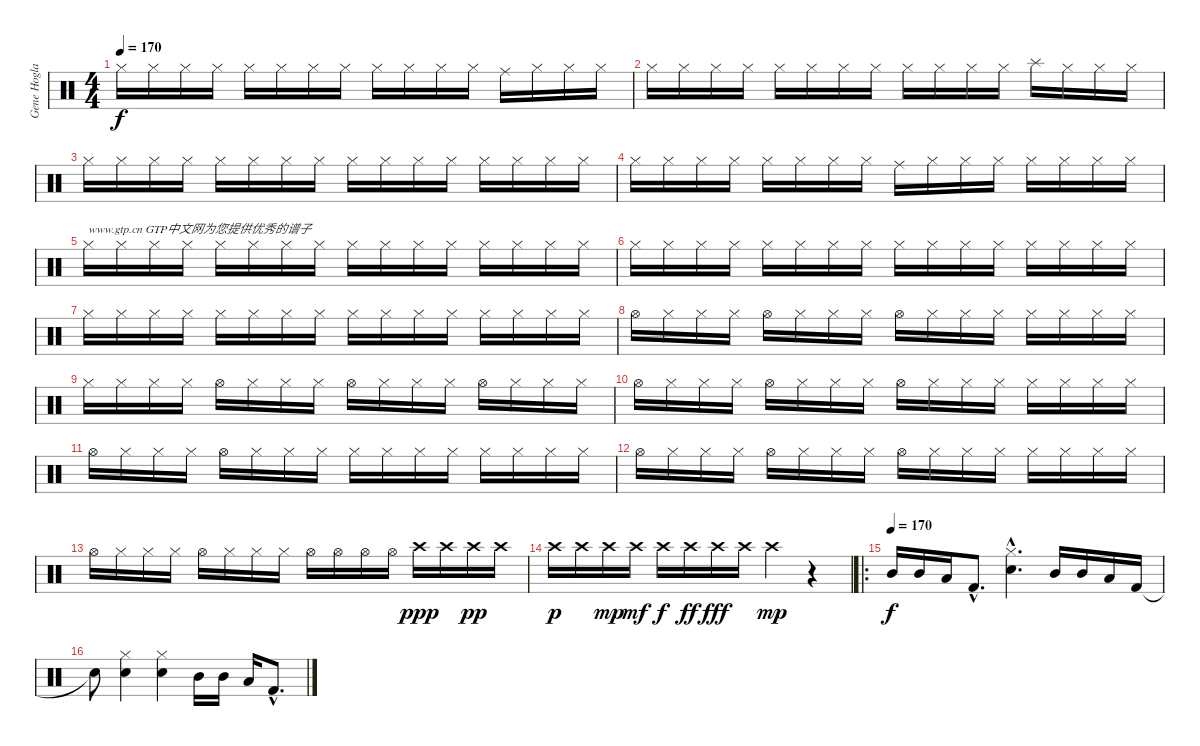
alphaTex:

\track ("Gene Hoglan" "Gene Hogla") {instrument percussion}
\staff {score}
\articulation defaults
\ts (4 4)
\tempo 170
\tempo 180
\tempo 170
\clef neutral
\ks c "Hi-Hat (closed)".16{dy f} "Hi-Hat (closed)".16 "Hi-Hat (closed)".16 "Hi-Hat (closed)".16 "Hi-Hat (closed)".16 "Hi-Hat (closed)".16 "Hi-Hat (closed)".16 "Hi-Hat (closed)".16 "Hi-Hat (closed)".16 "Hi-Hat (closed)".16 "Hi-Hat (closed)".16 "Hi-Hat (closed)".16 "Ride (middle)".16 "Hi-Hat (closed)".16 "Hi-Hat (closed)".16 "Hi-Hat (closed)".16
|
"Hi-Hat (closed)".16 "Hi-Hat (closed)".16 "Hi-Hat (closed)".16 "Hi-Hat (closed)".16 "Hi-Hat (closed)".16 "Hi-Hat (closed)".16 "Hi-Hat (closed)".16 "Hi-Hat (closed)".16 "Hi-Hat (closed)".16 "Hi-Hat (closed)".16 "Hi-Hat (closed)".16 "Hi-Hat (closed)".16 "Splash (hit)".16 "Hi-Hat (closed)".16 "Hi-Hat (closed)".16 "Hi-Hat (closed)".16 |
"Hi-Hat (closed)".16 "Hi-Hat (closed)".16 "Hi-Hat (closed)".16 "Hi-Hat (closed)".16 "Hi-Hat (closed)".16 "Hi-Hat (closed)".16 "Hi-Hat (closed)".16 "Hi-Hat (closed)".16 "Hi-Hat (closed)".16 "Hi-Hat (closed)".16 "Hi-Hat (closed)".16 "Hi-Hat (closed)".16 "Hi-Hat (closed)".16 "Hi-Hat (closed)".16 "Hi-Hat (closed)".16 "Hi-Hat (closed)".16 |
"Hi-Hat (closed)".16 "Hi-Hat (closed)".16 "Hi-Hat (closed)".16 "Hi-Hat (closed)".16 "Hi-Hat (closed)".16 "Hi-Hat (closed)".16 "Hi-Hat (closed)".16 "Hi-Hat (closed)".16 "Ride (middle)".16 "Hi-Hat (closed)".16 "Hi-Hat (closed)".16 "Hi-Hat (closed)".16 "Hi-Hat (closed)".16 "Hi-Hat (closed)".16 "Hi-Hat (closed)".16 "Hi-Hat (closed)".16 |
"Hi-Hat (closed)".16{txt "www.gtp.cn GTP中文网为您提供优秀的谱子"} "Hi-Hat (closed)".16 "Hi-Hat (closed)".16 "Hi-Hat (closed)".16 "Hi-Hat (closed)".16 "Hi-Hat (closed)".16 "Hi-Hat (closed)".16 "Hi-Hat (closed)".16 "Hi-Hat (closed)".16 "Hi-Hat (closed)".16 "Hi-Hat (closed)".16 "Hi-Hat (closed)".16 "Hi-Hat (closed)".16 "Hi-Hat (closed)".16 "Hi-Hat (closed)".16 "Hi-Hat (closed)".16 |
"Hi-Hat (closed)".16 "Hi-Hat (closed)".16 "Hi-Hat (closed)".16 "Hi-Hat (closed)".16 "Hi-Hat (closed)".16 "Hi-Hat (closed)".16 "Hi-Hat (closed)".16 "Hi-Hat (closed)".16 "Hi-Hat (closed)".16 "Hi-Hat (closed)".16 "Hi-Hat (closed)".16 "Hi-Hat (closed)".16 "Hi-Hat (closed)".16 "Hi-Hat (closed)".16 "Hi-Hat (closed)".16 "Hi-Hat (closed)".16 |
"Hi-Hat (closed)".16 "Hi-Hat (closed)".16 "Hi-Hat (closed)".16 "Hi-Hat (closed)".16 "Hi-Hat (closed)".16 "Hi-Hat (closed)".16 "Hi-Hat (closed)".16 "Hi-Hat (closed)".16 "Hi-Hat (closed)".16 "Hi-Hat (closed)".16 "Hi-Hat (closed)".16 "Hi-Hat (closed)".16 "Hi-Hat (closed)".16 "Hi-Hat (closed)".16 "Hi-Hat (closed)".16 "Hi-Hat (closed)".16 |
"Hi-Hat (open)".16 "Hi-Hat (closed)".16 "Hi-Hat (closed)".16 "Hi-Hat (closed)".16 "Hi-Hat (open)".16 "Hi-Hat (closed)".16 "Hi-Hat (closed)".16 "Hi-Hat (closed)".16 "Hi-Hat (open)".16 "Hi-Hat (closed)".16 "Hi-Hat (closed)".16 "Hi-Hat (closed)".16 "Hi-Hat (closed)".16 "Hi-Hat (closed)".16 "Hi-Hat (closed)".16 "Hi-Hat (closed)".16 |
"Hi-Hat (closed)".16 "Hi-Hat (closed)".16 "Hi-Hat (closed)".16 "Hi-Hat (closed)".16 "Hi-Hat (open)".16 "Hi-Hat (closed)".16 "Hi-Hat (closed)".16 "Hi-Hat (closed)".16 "Hi-Hat (open)".16 "Hi-Hat (closed)".16 "Hi-Hat (closed)".16 "Hi-Hat (closed)".16 "Hi-Hat (open)".16 "Hi-Hat (closed)".16 "Hi-Hat (closed)".16 "Hi-Hat (closed)".16 |
"Hi-Hat (open)".16 "Hi-Hat (closed)".16 "Hi-Hat (closed)".16 "Hi-Hat (closed)".16 "Hi-Hat (open)".16 "Hi-Hat (closed)".16 "Hi-Hat (closed)".16 "Hi-Hat (closed)".16 "Hi-Hat (open)".16 "Hi-Hat (closed)".16 "Hi-Hat (closed)".16 "Hi-Hat (closed)".16 "Hi-Hat (closed)".16 "Hi-Hat (closed)".16 "Hi-Hat (closed)".16 "Hi-Hat (closed)".16 |
"Hi-Hat (open)".16 "Hi-Hat (closed)".16 "Hi-Hat (closed)".16 "Hi-Hat (closed)".16 "Hi-Hat (open)".16 "Hi-Hat (closed)".16 "Hi-Hat (closed)".16 "Hi-Hat (closed)".16 "Hi-Hat (closed)".16 "Hi-Hat (closed)".16 "Hi-Hat (closed)".16 "Hi-Hat (closed)".16 "Hi-Hat (closed)".16 "Hi-Hat (closed)".16 "Hi-Hat (closed)".16 "Hi-Hat (closed)".16 |
"Hi-Hat (open)".16 "Hi-Hat (closed)".16 "Hi-Hat (closed)".16 "Hi-Hat (closed)".16 "Hi-Hat (open)".16 "Hi-Hat (closed)".16 "Hi-Hat (closed)".16 "Hi-Hat (closed)".16 "Hi-Hat (open)".16 "Hi-Hat (closed)".16 "Hi-Hat (closed)".16 "Hi-Hat (closed)".16 "Hi-Hat (closed)".16 "Hi-Hat (closed)".16 "Hi-Hat (closed)".16 "Hi-Hat (closed)".16 |
"Hi-Hat (open)".16 "Hi-Hat (closed)".16 "Hi-Hat (closed)".16 "Hi-Hat (closed)".16 "Hi-Hat (open)".16 "Hi-Hat (closed)".16 "Hi-Hat (closed)".16 "Hi-Hat (closed)".16 "Hi-Hat (open)".16 "Hi-Hat (open)".16 "Hi-Hat (open)".16 "Hi-Hat (open)".16 "Crash high (hit)".16{dy ppp} "Crash high (hit)".16 "Crash high (hit)".16{dy pp} "Crash high (hit)".16 |
"Crash high (hit)".16{dy p} "Crash high (hit)".16 "Crash high (hit)".16{dy mp} "Crash high (hit)".16{dy mf} "Crash high (hit)".16{dy f} "Crash high (hit)".16{dy ff} "Crash high (hit)".16{dy fff} "Crash high (hit)".16 "Crash high (hit)".4{dy mp} r.4 |
\ro
\tempo (170)
"Mid Tom (hit)".16{dy f} "Mid Tom (hit)".16 "Low Tom (hit)".16 "Kick (hit) 2"{hac}.8{d} ("Hi-Hat (closed)"{hac} "Snare (hit) 2"{hac}).4{d} "Mid Tom (hit)".16 "Mid Tom (hit)".16 "Low Tom (hit)".16 "Kick (hit) 2".16 |
"Snare (hit) 2"{t}.8 ("Hi-Hat (closed)" "Snare (hit) 2").4 ("Hi-Hat (closed)" "Snare (hit) 2").4 "Mid Tom (hit)".16 "Mid Tom (hit)".16 "Low Tom (hit)".16 "Kick (hit) 2"{hac}.8{d}
